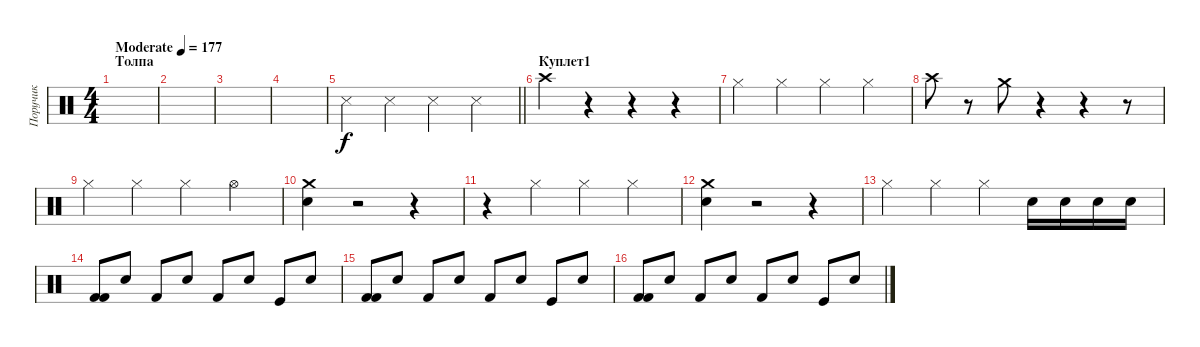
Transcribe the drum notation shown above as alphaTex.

\track ("Поручик" "Поручик") {instrument percussion}
\staff {score}
\articulation defaults
\ts (4 4)
\section ("" "Толпа")
\tempo (177 "Moderate")
\clef neutral
\ks c
|
|
|
|
\barLineRight lightlight "Metronome (hit)".4 "Metronome (hit)".4 "Metronome (hit)".4 "Metronome (hit)".4
|
\section ("" "Куплет1")
"Crash high (hit)".4 r.4 r.4 r.4 |
"Hi-Hat (closed)".4 "Hi-Hat (closed)".4 "Hi-Hat (closed)".4 "Hi-Hat (closed)".4 |
"Crash high (hit)".8 r.8 "Crash medium (hit)".8 r.4 r.4 r.8 |
"Hi-Hat (closed)".4 "Hi-Hat (closed)".4 "Hi-Hat (closed)".4 "Hi-Hat (open)".4 |
("Crash medium (hit)" "Snare (hit) 2").4 r.2 r.4 |
r.4 "Hi-Hat (closed)".4 "Hi-Hat (closed)".4 "Hi-Hat (closed)".4 |
("Crash medium (hit)" "Snare (hit) 2").4 r.2 r.4 |
"Hi-Hat (closed)".4 "Hi-Hat (closed)".4 "Hi-Hat (closed)".4 "Snare (hit) 2".16 "Snare (hit) 2".16 "Snare (hit) 2".16 "Snare (hit) 2".16 |
("Kick (hit) 2" "Kick (hit) 2").8 "Snare (hit) 2".8 "Kick (hit) 2".8 "Snare (hit) 2".8 "Kick (hit) 2".8 "Snare (hit) 2".8 "Kick (hit)".8 "Snare (hit) 2".8 |
("Kick (hit) 2" "Kick (hit) 2").8 "Snare (hit) 2".8 "Kick (hit) 2".8 "Snare (hit) 2".8 "Kick (hit) 2".8 "Snare (hit) 2".8 "Kick (hit)".8 "Snare (hit) 2".8 |
("Kick (hit) 2" "Kick (hit) 2").8 "Snare (hit) 2".8 "Kick (hit) 2".8 "Snare (hit) 2".8 "Kick (hit) 2".8 "Snare (hit) 2".8 "Kick (hit)".8 "Snare (hit) 2".8
